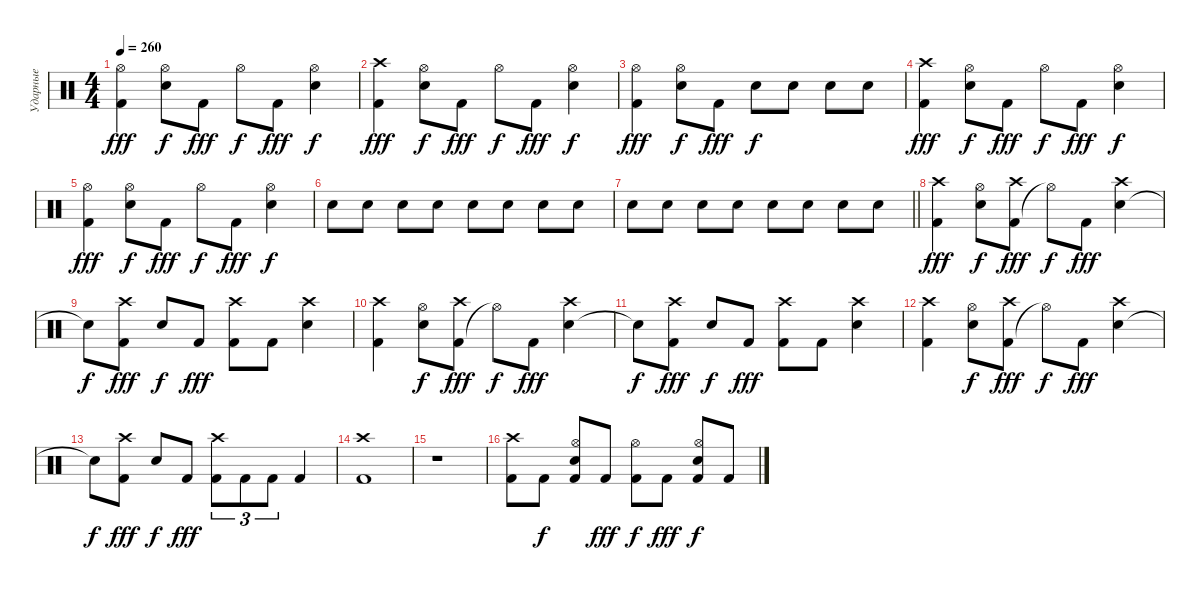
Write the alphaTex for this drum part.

\track ("Ударные" "Ударные") {instrument percussion}
\staff {score}
\articulation defaults
\ts (4 4)
\tempo 260
\clef neutral
\ks c
("Kick (hit) 2" "Hi-Hat (open)").4{dy fff} ("Snare (hit) 2" "Hi-Hat (open)").8{dy f} "Kick (hit) 2".8{dy fff} "Hi-Hat (open)".8{dy f} "Kick (hit) 2".8{dy fff} ("Snare (hit) 2" "Hi-Hat (open)").4{dy f} |
("Kick (hit) 2" "Crash high (hit)").4{dy fff} ("Snare (hit) 2" "Hi-Hat (open)").8{dy f} "Kick (hit) 2".8{dy fff} "Hi-Hat (open)".8{dy f} "Kick (hit) 2".8{dy fff} ("Snare (hit) 2" "Hi-Hat (open)").4{dy f} |
("Kick (hit) 2" "Hi-Hat (open)").4{dy fff} ("Snare (hit) 2" "Hi-Hat (open)").8{dy f} "Kick (hit) 2".8{dy fff} "Snare (hit) 2".8{dy f} "Snare (hit) 2".8 "Snare (hit) 2".8 "Snare (hit) 2".8 |
("Kick (hit) 2" "Crash high (hit)").4{dy fff} ("Snare (hit) 2" "Hi-Hat (open)").8{dy f} "Kick (hit) 2".8{dy fff} "Hi-Hat (open)".8{dy f} "Kick (hit) 2".8{dy fff} ("Snare (hit) 2" "Hi-Hat (open)").4{dy f} |
("Kick (hit) 2" "Hi-Hat (open)").4{dy fff} ("Snare (hit) 2" "Hi-Hat (open)").8{dy f} "Kick (hit) 2".8{dy fff} "Hi-Hat (open)".8{dy f} "Kick (hit) 2".8{dy fff} ("Snare (hit) 2" "Hi-Hat (open)").4{dy f} |
"Snare (hit) 2".8 "Snare (hit) 2".8 "Snare (hit) 2".8 "Snare (hit) 2".8 "Snare (hit) 2".8 "Snare (hit) 2".8 "Snare (hit) 2".8 "Snare (hit) 2".8 |
\barLineRight lightlight "Snare (hit) 2".8 "Snare (hit) 2".8 "Snare (hit) 2".8 "Snare (hit) 2".8 "Snare (hit) 2".8 "Snare (hit) 2".8 "Snare (hit) 2".8 "Snare (hit) 2".8
|
("Kick (hit) 2" "Crash high (hit)").4{dy fff} ("Snare (hit) 2" "Hi-Hat (open)").8{dy f} ("Kick (hit) 2" "Crash high (hit)").8{dy fff} "Hi-Hat (open)"{t}.8{dy f} "Kick (hit) 2".8{dy fff} ("Snare (hit) 2" "Crash high (hit)").4 |
"Snare (hit)"{t}.8{dy f} ("Kick (hit) 2" "Crash high (hit)").8{dy fff} "Snare (hit) 2".8{dy f} "Kick (hit) 2".8{dy fff} ("Kick (hit) 2" "Crash high (hit)").8 "Kick (hit) 2".8 ("Snare (hit) 2" "Crash high (hit)").4 |
("Kick (hit) 2" "Crash high (hit)").4 ("Snare (hit) 2" "Hi-Hat (open)").8{dy f} ("Kick (hit) 2" "Crash high (hit)").8{dy fff} "Hi-Hat (open)"{t}.8{dy f} "Kick (hit) 2".8{dy fff} ("Snare (hit) 2" "Crash high (hit)").4 |
"Snare (hit)"{t}.8{dy f} ("Kick (hit) 2" "Crash high (hit)").8{dy fff} "Snare (hit) 2".8{dy f} "Kick (hit) 2".8{dy fff} ("Kick (hit) 2" "Crash high (hit)").8 "Kick (hit) 2".8 ("Snare (hit) 2" "Crash high (hit)").4 |
("Kick (hit) 2" "Crash high (hit)").4 ("Snare (hit) 2" "Hi-Hat (open)").8{dy f} ("Kick (hit) 2" "Crash high (hit)").8{dy fff} "Hi-Hat (open)"{t}.8{dy f} "Kick (hit) 2".8{dy fff} ("Snare (hit) 2" "Crash high (hit)").4 |
"Snare (hit)"{t}.8{dy f} ("Kick (hit) 2" "Crash high (hit)").8{dy fff} "Snare (hit) 2".8{dy f} "Kick (hit) 2".8{dy fff} ("Kick (hit) 2" "Crash high (hit)").8{tu (3 2)} "Kick (hit) 2".8{tu (3 2)} "Kick (hit) 2".8{tu (3 2)} "Kick (hit) 2".4 |
("Kick (hit) 2" "Crash high (hit)").1 |
r.1 |
("Kick (hit) 2" "Crash high (hit)").8 "Kick (hit) 2".8{dy f} ("Kick (hit) 2" "Snare (hit) 2" "Hi-Hat (open)").8 "Kick (hit) 2".8{dy fff} ("Kick (hit) 2" "Hi-Hat (open)").8{dy f} "Kick (hit) 2".8{dy fff} ("Kick (hit) 2" "Snare (hit) 2" "Hi-Hat (open)").8{dy f} "Kick (hit) 2".8
